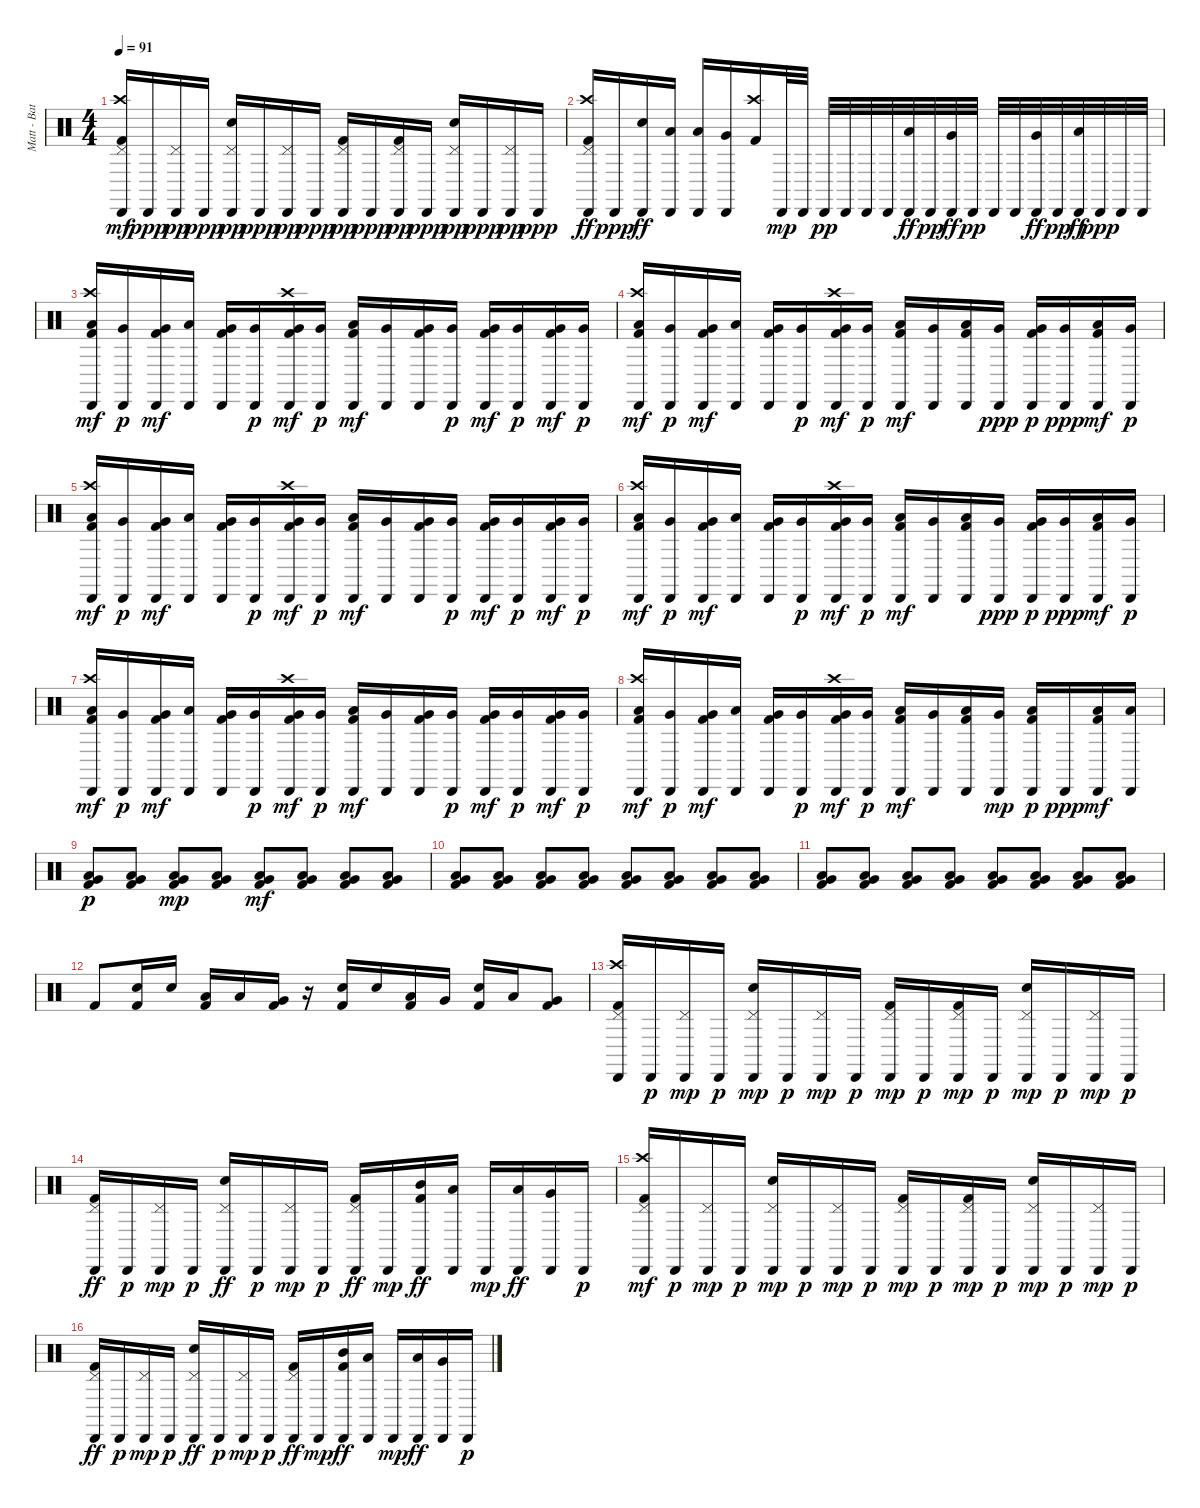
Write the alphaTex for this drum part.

\track ("Matt - Batería" "Matt - Bat") {instrument percussion}
\staff {score}
\articulation defaults
\ts (4 4)
\tempo 91
\clef neutral
\ks c
("Cabasa (hit)" "Crash high (hit)" "Pedal Hi-Hat (hit)" "Kick (hit) 2").16{dy mf} "Cabasa (hit)".16{dy ppp} ("Cabasa (hit)" "Pedal Hi-Hat (hit)").16{dy pp} "Cabasa (hit)".16{dy ppp} ("Cabasa (hit)" "Pedal Hi-Hat (hit)" "Snare (hit) 2").16{dy pp} "Cabasa (hit)".16{dy ppp} ("Cabasa (hit)" "Pedal Hi-Hat (hit)").16{dy pp} "Cabasa (hit)".16{dy ppp} ("Cabasa (hit)" "Pedal Hi-Hat (hit)" "Kick (hit) 2").16{dy pp} "Cabasa (hit)".16{dy ppp} ("Cabasa (hit)" "Pedal Hi-Hat (hit)" "Kick (hit) 2").16{dy pp} "Cabasa (hit)".16{dy ppp} ("Cabasa (hit)" "Pedal Hi-Hat (hit)" "Snare (hit) 2").16{dy pp} "Cabasa (hit)".16{dy ppp} ("Cabasa (hit)" "Pedal Hi-Hat (hit)").16{dy pp} "Cabasa (hit)".16{dy ppp} |
("Cabasa (hit)" "Crash high (hit)" "Pedal Hi-Hat (hit)" "Kick (hit) 2").16{dy ff} "Cabasa (hit)".16{dy ppp} ("Cabasa (hit)" "Snare (hit) 2").16{dy ff} ("Cabasa (hit)" "Low Tom (hit)").16 ("Cabasa (hit)" "Low Tom (hit)").16 ("Cabasa (hit)" "Very Low Tom (hit)").16 ("Crash high (hit)" "Kick (hit) 2").16 "Cabasa (hit)".32{dy mp} "Cabasa (hit)".32 "Cabasa (hit)".32{dy pp} "Cabasa (hit)".32 "Cabasa (hit)".32 "Cabasa (hit)".32 ("Cabasa (hit)" "Low Tom (hit)").32{dy ff} "Cabasa (hit)".32{dy pp} ("Cabasa (hit)" "Very Low Tom (hit)").32{dy ff} "Cabasa (hit)".32{dy pp} "Cabasa (hit)".32 "Cabasa (hit)".32 ("Cabasa (hit)" "Very Low Tom (hit)").32{dy ff} "Cabasa (hit)".32{dy pp} ("Cabasa (hit)" "Low Floor Tom (hit)").32{dy ff} "Cabasa (hit)".32{dy ppp} "Cabasa (hit)".32 "Cabasa (hit)".32 |
("Cabasa (hit)" "Crash high (hit)" "Low Tom (hit)" "Kick (hit) 2").16{dy mf} ("Cabasa (hit)" "Very Low Tom (hit)").16{dy p} ("Cabasa (hit)" "Very Low Tom (hit)" "Kick (hit) 2").16{dy mf} ("Cabasa (hit)" "Low Tom (hit)").16 ("Cabasa (hit)" "Very Low Tom (hit)" "Kick (hit) 2").16 ("Cabasa (hit)" "Very Low Tom (hit)").16{dy p} ("Cabasa (hit)" "Crash high (hit)" "Very Low Tom (hit)" "Kick (hit) 2").16{dy mf} ("Cabasa (hit)" "Very Low Tom (hit)").16{dy p} ("Cabasa (hit)" "Low Tom (hit)" "Kick (hit) 2").16{dy mf} ("Cabasa (hit)" "Very Low Tom (hit)").16 ("Cabasa (hit)" "Very Low Tom (hit)" "Kick (hit) 2").16 ("Cabasa (hit)" "Very Low Tom (hit)").16{dy p} ("Cabasa (hit)" "Very Low Tom (hit)" "Kick (hit) 2").16{dy mf} ("Cabasa (hit)" "Very Low Tom (hit)").16{dy p} ("Cabasa (hit)" "Very Low Tom (hit)" "Kick (hit) 2").16{dy mf} ("Cabasa (hit)" "Very Low Tom (hit)").16{dy p} |
("Cabasa (hit)" "Crash high (hit)" "Low Tom (hit)" "Kick (hit) 2").16{dy mf} ("Cabasa (hit)" "Very Low Tom (hit)").16{dy p} ("Cabasa (hit)" "Very Low Tom (hit)" "Kick (hit) 2").16{dy mf} ("Cabasa (hit)" "Low Tom (hit)").16 ("Cabasa (hit)" "Very Low Tom (hit)" "Kick (hit) 2").16 ("Cabasa (hit)" "Very Low Tom (hit)").16{dy p} ("Cabasa (hit)" "Crash high (hit)" "Very Low Tom (hit)" "Kick (hit) 2").16{dy mf} ("Cabasa (hit)" "Very Low Tom (hit)").16{dy p} ("Cabasa (hit)" "Low Tom (hit)" "Kick (hit) 2").16{dy mf} ("Cabasa (hit)" "Very Low Tom (hit)").16 ("Cabasa (hit)" "Low Tom (hit)" "Kick (hit) 2").16 ("Cabasa (hit)" "Very Low Tom (hit)").16{dy ppp} ("Cabasa (hit)" "Very Low Tom (hit)" "Kick (hit) 2").16{dy p} ("Cabasa (hit)" "Very Low Tom (hit)").16{dy ppp} ("Cabasa (hit)" "Low Floor Tom (hit)" "Kick (hit) 2").16{dy mf} ("Cabasa (hit)" "Very Low Tom (hit)").16{dy p} |
("Cabasa (hit)" "Crash high (hit)" "Low Tom (hit)" "Kick (hit) 2").16{dy mf} ("Cabasa (hit)" "Very Low Tom (hit)").16{dy p} ("Cabasa (hit)" "Very Low Tom (hit)" "Kick (hit) 2").16{dy mf} ("Cabasa (hit)" "Low Tom (hit)").16 ("Cabasa (hit)" "Very Low Tom (hit)" "Kick (hit) 2").16 ("Cabasa (hit)" "Very Low Tom (hit)").16{dy p} ("Cabasa (hit)" "Crash high (hit)" "Very Low Tom (hit)" "Kick (hit) 2").16{dy mf} ("Cabasa (hit)" "Very Low Tom (hit)").16{dy p} ("Cabasa (hit)" "Low Tom (hit)" "Kick (hit) 2").16{dy mf} ("Cabasa (hit)" "Very Low Tom (hit)").16 ("Cabasa (hit)" "Very Low Tom (hit)" "Kick (hit) 2").16 ("Cabasa (hit)" "Very Low Tom (hit)").16{dy p} ("Cabasa (hit)" "Very Low Tom (hit)" "Kick (hit) 2").16{dy mf} ("Cabasa (hit)" "Very Low Tom (hit)").16{dy p} ("Cabasa (hit)" "Very Low Tom (hit)" "Kick (hit) 2").16{dy mf} ("Cabasa (hit)" "Very Low Tom (hit)").16{dy p} |
("Cabasa (hit)" "Crash high (hit)" "Low Tom (hit)" "Kick (hit) 2").16{dy mf} ("Cabasa (hit)" "Very Low Tom (hit)").16{dy p} ("Cabasa (hit)" "Very Low Tom (hit)" "Kick (hit) 2").16{dy mf} ("Cabasa (hit)" "Low Tom (hit)").16 ("Cabasa (hit)" "Very Low Tom (hit)" "Kick (hit) 2").16 ("Cabasa (hit)" "Very Low Tom (hit)").16{dy p} ("Cabasa (hit)" "Crash high (hit)" "Very Low Tom (hit)" "Kick (hit) 2").16{dy mf} ("Cabasa (hit)" "Very Low Tom (hit)").16{dy p} ("Cabasa (hit)" "Low Tom (hit)" "Kick (hit) 2").16{dy mf} ("Cabasa (hit)" "Very Low Tom (hit)").16 ("Cabasa (hit)" "Low Tom (hit)" "Kick (hit) 2").16 ("Cabasa (hit)" "Very Low Tom (hit)").16{dy ppp} ("Cabasa (hit)" "Very Low Tom (hit)" "Kick (hit) 2").16{dy p} ("Cabasa (hit)" "Very Low Tom (hit)").16{dy ppp} ("Cabasa (hit)" "Low Floor Tom (hit)" "Kick (hit) 2").16{dy mf} ("Cabasa (hit)" "Very Low Tom (hit)").16{dy p} |
("Cabasa (hit)" "Crash high (hit)" "Low Tom (hit)" "Kick (hit) 2").16{dy mf} ("Cabasa (hit)" "Very Low Tom (hit)").16{dy p} ("Cabasa (hit)" "Very Low Tom (hit)" "Kick (hit) 2").16{dy mf} ("Cabasa (hit)" "Low Tom (hit)").16 ("Cabasa (hit)" "Very Low Tom (hit)" "Kick (hit) 2").16 ("Cabasa (hit)" "Very Low Tom (hit)").16{dy p} ("Cabasa (hit)" "Crash high (hit)" "Very Low Tom (hit)" "Kick (hit) 2").16{dy mf} ("Cabasa (hit)" "Very Low Tom (hit)").16{dy p} ("Cabasa (hit)" "Low Tom (hit)" "Kick (hit) 2").16{dy mf} ("Cabasa (hit)" "Very Low Tom (hit)").16 ("Cabasa (hit)" "Very Low Tom (hit)" "Kick (hit) 2").16 ("Cabasa (hit)" "Very Low Tom (hit)").16{dy p} ("Cabasa (hit)" "Very Low Tom (hit)" "Kick (hit) 2").16{dy mf} ("Cabasa (hit)" "Very Low Tom (hit)").16{dy p} ("Cabasa (hit)" "Very Low Tom (hit)" "Kick (hit) 2").16{dy mf} ("Cabasa (hit)" "Very Low Tom (hit)").16{dy p} |
("Cabasa (hit)" "Crash high (hit)" "Low Tom (hit)" "Kick (hit) 2").16{dy mf} ("Cabasa (hit)" "Very Low Tom (hit)").16{dy p} ("Cabasa (hit)" "Very Low Tom (hit)" "Kick (hit) 2").16{dy mf} ("Cabasa (hit)" "Low Tom (hit)").16 ("Cabasa (hit)" "Very Low Tom (hit)" "Kick (hit) 2").16 ("Cabasa (hit)" "Very Low Tom (hit)").16{dy p} ("Cabasa (hit)" "Crash high (hit)" "Very Low Tom (hit)" "Kick (hit) 2").16{dy mf} ("Cabasa (hit)" "Very Low Tom (hit)").16{dy p} ("Cabasa (hit)" "Low Tom (hit)" "Kick (hit) 2").16{dy mf} ("Cabasa (hit)" "Very Low Tom (hit)").16 ("Cabasa (hit)" "Low Tom (hit)" "Kick (hit) 2").16 ("Cabasa (hit)" "Very Low Tom (hit)").16{dy mp} ("Cabasa (hit)" "Low Tom (hit)" "Kick (hit) 2").16{dy p} "Cabasa (hit)".16{dy ppp} ("Cabasa (hit)" "Low Tom (hit)" "Kick (hit) 2").16{dy mf} ("Cabasa (hit)" "Low Tom (hit)").16 |
("Very Low Tom (hit)" "Low Tom (hit)" "Kick (hit) 2").8{dy p} ("Very Low Tom (hit)" "Low Tom (hit)" "Kick (hit) 2").8 ("Very Low Tom (hit)" "Low Tom (hit)" "Kick (hit) 2").8{dy mp} ("Very Low Tom (hit)" "Low Tom (hit)" "Kick (hit) 2").8 ("Very Low Tom (hit)" "Low Tom (hit)" "Kick (hit) 2").8{dy mf} ("Very Low Tom (hit)" "Low Tom (hit)" "Kick (hit) 2").8 ("Very Low Tom (hit)" "Low Tom (hit)" "Kick (hit) 2").8 ("Very Low Tom (hit)" "Low Tom (hit)" "Kick (hit) 2").8 |
("Very Low Tom (hit)" "Low Tom (hit)" "Kick (hit) 2").8 ("Very Low Tom (hit)" "Low Tom (hit)" "Kick (hit) 2").8 ("Very Low Tom (hit)" "Low Tom (hit)" "Kick (hit) 2").8 ("Very Low Tom (hit)" "Low Tom (hit)" "Kick (hit) 2").8 ("Very Low Tom (hit)" "Low Tom (hit)" "Kick (hit) 2").8 ("Very Low Tom (hit)" "Low Tom (hit)" "Kick (hit) 2").8 ("Very Low Tom (hit)" "Low Tom (hit)" "Kick (hit) 2").8 ("Very Low Tom (hit)" "Low Tom (hit)" "Kick (hit) 2").8 |
("Very Low Tom (hit)" "Low Tom (hit)" "Kick (hit) 2").8 ("Very Low Tom (hit)" "Low Tom (hit)" "Kick (hit) 2").8 ("Very Low Tom (hit)" "Low Tom (hit)" "Kick (hit) 2").8 ("Very Low Tom (hit)" "Low Tom (hit)" "Kick (hit) 2").8 ("Very Low Tom (hit)" "Low Tom (hit)" "Kick (hit) 2").8 ("Very Low Tom (hit)" "Low Tom (hit)" "Kick (hit) 2").8 ("Very Low Tom (hit)" "Low Tom (hit)" "Kick (hit) 2").8 ("Very Low Tom (hit)" "Low Tom (hit)" "Kick (hit) 2").8 |
"Kick (hit) 2".8 ("Snare (hit) 2" "Kick (hit) 2").16 "Snare (hit) 2".16 ("Low Tom (hit)" "Kick (hit) 2").16 "Low Tom (hit)".16 ("Very Low Tom (hit)" "Kick (hit) 2").16 r.16 ("Snare (hit) 2" "Kick (hit) 2").16 "Snare (hit) 2".16 ("Low Tom (hit)" "Kick (hit) 2").16 "Very Low Tom (hit)".16 ("Snare (hit) 2" "Kick (hit) 2").16 "Low Tom (hit)".16 ("Very Low Tom (hit)" "Kick (hit) 2").8 |
("Cabasa (hit)" "Crash high (hit)" "Pedal Hi-Hat (hit)" "Kick (hit) 2").16 "Cabasa (hit)".16{dy p} ("Cabasa (hit)" "Pedal Hi-Hat (hit)").16{dy mp} "Cabasa (hit)".16{dy p} ("Cabasa (hit)" "Pedal Hi-Hat (hit)" "Snare (hit) 2").16{dy mp} "Cabasa (hit)".16{dy p} ("Cabasa (hit)" "Pedal Hi-Hat (hit)").16{dy mp} "Cabasa (hit)".16{dy p} ("Cabasa (hit)" "Pedal Hi-Hat (hit)" "Kick (hit) 2").16{dy mp} "Cabasa (hit)".16{dy p} ("Cabasa (hit)" "Pedal Hi-Hat (hit)" "Kick (hit) 2").16{dy mp} "Cabasa (hit)".16{dy p} ("Cabasa (hit)" "Pedal Hi-Hat (hit)" "Snare (hit) 2").16{dy mp} "Cabasa (hit)".16{dy p} ("Cabasa (hit)" "Pedal Hi-Hat (hit)").16{dy mp} "Cabasa (hit)".16{dy p} |
("Cabasa (hit)" "Pedal Hi-Hat (hit)" "Kick (hit) 2").16{dy ff} "Cabasa (hit)".16{dy p} ("Cabasa (hit)" "Pedal Hi-Hat (hit)").16{dy mp} "Cabasa (hit)".16{dy p} ("Cabasa (hit)" "Pedal Hi-Hat (hit)" "Snare (hit) 2").16{dy ff} "Cabasa (hit)".16{dy p} ("Cabasa (hit)" "Pedal Hi-Hat (hit)").16{dy mp} "Cabasa (hit)".16{dy p} ("Cabasa (hit)" "Pedal Hi-Hat (hit)" "Kick (hit) 2").16{dy ff} "Cabasa (hit)".16{dy mp} ("Cabasa (hit)" "Mid Tom (hit)" "Kick (hit) 2").16{dy ff} ("Cabasa (hit)" "Low Tom (hit)").16 "Cabasa (hit)".16{dy mp} ("Cabasa (hit)" "Low Tom (hit)").16{dy ff} ("Cabasa (hit)" "Very Low Tom (hit)").16 "Cabasa (hit)".16{dy p} |
("Cabasa (hit)" "Crash high (hit)" "Pedal Hi-Hat (hit)" "Kick (hit) 2").16{dy mf} "Cabasa (hit)".16{dy p} ("Cabasa (hit)" "Pedal Hi-Hat (hit)").16{dy mp} "Cabasa (hit)".16{dy p} ("Cabasa (hit)" "Pedal Hi-Hat (hit)" "Snare (hit) 2").16{dy mp} "Cabasa (hit)".16{dy p} ("Cabasa (hit)" "Pedal Hi-Hat (hit)").16{dy mp} "Cabasa (hit)".16{dy p} ("Cabasa (hit)" "Pedal Hi-Hat (hit)" "Kick (hit) 2").16{dy mp} "Cabasa (hit)".16{dy p} ("Cabasa (hit)" "Pedal Hi-Hat (hit)" "Kick (hit) 2").16{dy mp} "Cabasa (hit)".16{dy p} ("Cabasa (hit)" "Pedal Hi-Hat (hit)" "Snare (hit) 2").16{dy mp} "Cabasa (hit)".16{dy p} ("Cabasa (hit)" "Pedal Hi-Hat (hit)").16{dy mp} "Cabasa (hit)".16{dy p} |
("Cabasa (hit)" "Pedal Hi-Hat (hit)" "Kick (hit) 2").16{dy ff} "Cabasa (hit)".16{dy p} ("Cabasa (hit)" "Pedal Hi-Hat (hit)").16{dy mp} "Cabasa (hit)".16{dy p} ("Cabasa (hit)" "Pedal Hi-Hat (hit)" "Snare (hit) 2").16{dy ff} "Cabasa (hit)".16{dy p} ("Cabasa (hit)" "Pedal Hi-Hat (hit)").16{dy mp} "Cabasa (hit)".16{dy p} ("Cabasa (hit)" "Pedal Hi-Hat (hit)" "Kick (hit) 2").16{dy ff} "Cabasa (hit)".16{dy mp} ("Cabasa (hit)" "Mid Tom (hit)" "Kick (hit) 2").16{dy ff} ("Cabasa (hit)" "Low Tom (hit)").16 "Cabasa (hit)".16{dy mp} ("Cabasa (hit)" "Low Tom (hit)").16{dy ff} ("Cabasa (hit)" "Very Low Tom (hit)").16 "Cabasa (hit)".16{dy p}
